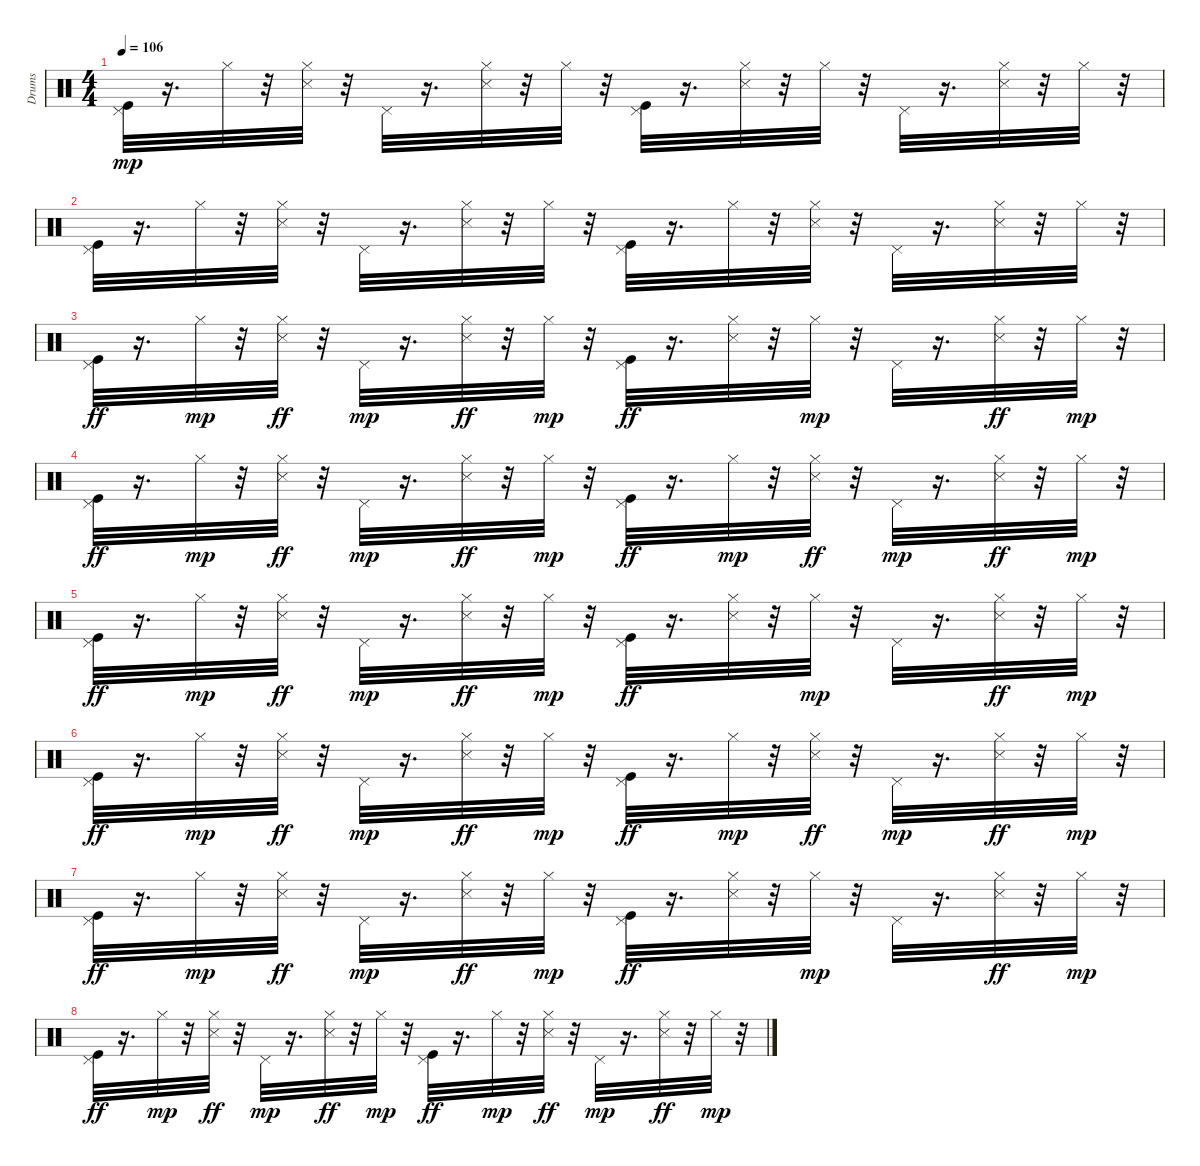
\track ("Drums" "Drums") {instrument percussion}
\staff {score}
\articulation defaults
\ts (4 4)
\tempo 106
\clef neutral
\ks c
("Kick (hit)" "Pedal Hi-Hat (hit)").32{dy mp} r.16{d} "Hi-Hat (closed)".32 r.32 ("Snare (side stick) 3" "Hi-Hat (closed)").32 r.32 "Pedal Hi-Hat (hit)".32 r.16{d} ("Snare (side stick) 3" "Hi-Hat (closed)").32 r.32 "Hi-Hat (closed)".32 r.32 ("Kick (hit)" "Pedal Hi-Hat (hit)").32 r.16{d} ("Snare (side stick) 3" "Hi-Hat (closed)").32 r.32 "Hi-Hat (closed)".32 r.32 "Pedal Hi-Hat (hit)".32 r.16{d} ("Snare (side stick) 3" "Hi-Hat (closed)").32 r.32 "Hi-Hat (closed)".32 r.32 |
("Kick (hit)" "Pedal Hi-Hat (hit)").32 r.16{d} "Hi-Hat (closed)".32 r.32 ("Snare (side stick) 3" "Hi-Hat (closed)").32 r.32 "Pedal Hi-Hat (hit)".32 r.16{d} ("Snare (side stick) 3" "Hi-Hat (closed)").32 r.32 "Hi-Hat (closed)".32 r.32 ("Kick (hit)" "Pedal Hi-Hat (hit)").32 r.16{d} "Hi-Hat (closed)".32 r.32 ("Snare (side stick) 3" "Hi-Hat (closed)").32 r.32 "Pedal Hi-Hat (hit)".32 r.16{d} ("Snare (side stick) 3" "Hi-Hat (closed)").32 r.32 "Hi-Hat (closed)".32 r.32 |
("Pedal Hi-Hat (hit)" "Kick (hit)").32{dy ff} r.16{d} "Hi-Hat (closed)".32{dy mp} r.32 ("Hi-Hat (closed)" "Snare (side stick) 3").32{dy ff} r.32 "Pedal Hi-Hat (hit)".32{dy mp} r.16{d} ("Hi-Hat (closed)" "Snare (side stick) 3").32{dy ff} r.32 "Hi-Hat (closed)".32{dy mp} r.32 ("Pedal Hi-Hat (hit)" "Kick (hit)").32{dy ff} r.16{d} ("Hi-Hat (closed)" "Snare (side stick) 3").32 r.32 "Hi-Hat (closed)".32{dy mp} r.32 "Pedal Hi-Hat (hit)".32 r.16{d} ("Hi-Hat (closed)" "Snare (side stick) 3").32{dy ff} r.32 "Hi-Hat (closed)".32{dy mp} r.32 |
("Pedal Hi-Hat (hit)" "Kick (hit)").32{dy ff} r.16{d} "Hi-Hat (closed)".32{dy mp} r.32 ("Hi-Hat (closed)" "Snare (side stick) 3").32{dy ff} r.32 "Pedal Hi-Hat (hit)".32{dy mp} r.16{d} ("Hi-Hat (closed)" "Snare (side stick) 3").32{dy ff} r.32 "Hi-Hat (closed)".32{dy mp} r.32 ("Pedal Hi-Hat (hit)" "Kick (hit)").32{dy ff} r.16{d} "Hi-Hat (closed)".32{dy mp} r.32 ("Hi-Hat (closed)" "Snare (side stick) 3").32{dy ff} r.32 "Pedal Hi-Hat (hit)".32{dy mp} r.16{d} ("Hi-Hat (closed)" "Snare (side stick) 3").32{dy ff} r.32 "Hi-Hat (closed)".32{dy mp} r.32 |
("Pedal Hi-Hat (hit)" "Kick (hit)").32{dy ff} r.16{d} "Hi-Hat (closed)".32{dy mp} r.32 ("Hi-Hat (closed)" "Snare (side stick) 3").32{dy ff} r.32 "Pedal Hi-Hat (hit)".32{dy mp} r.16{d} ("Hi-Hat (closed)" "Snare (side stick) 3").32{dy ff} r.32 "Hi-Hat (closed)".32{dy mp} r.32 ("Pedal Hi-Hat (hit)" "Kick (hit)").32{dy ff} r.16{d} ("Hi-Hat (closed)" "Snare (side stick) 3").32 r.32 "Hi-Hat (closed)".32{dy mp} r.32 "Pedal Hi-Hat (hit)".32 r.16{d} ("Hi-Hat (closed)" "Snare (side stick) 3").32{dy ff} r.32 "Hi-Hat (closed)".32{dy mp} r.32 |
("Pedal Hi-Hat (hit)" "Kick (hit)").32{dy ff} r.16{d} "Hi-Hat (closed)".32{dy mp} r.32 ("Hi-Hat (closed)" "Snare (side stick) 3").32{dy ff} r.32 "Pedal Hi-Hat (hit)".32{dy mp} r.16{d} ("Hi-Hat (closed)" "Snare (side stick) 3").32{dy ff} r.32 "Hi-Hat (closed)".32{dy mp} r.32 ("Pedal Hi-Hat (hit)" "Kick (hit)").32{dy ff} r.16{d} "Hi-Hat (closed)".32{dy mp} r.32 ("Hi-Hat (closed)" "Snare (side stick) 3").32{dy ff} r.32 "Pedal Hi-Hat (hit)".32{dy mp} r.16{d} ("Hi-Hat (closed)" "Snare (side stick) 3").32{dy ff} r.32 "Hi-Hat (closed)".32{dy mp} r.32 |
("Pedal Hi-Hat (hit)" "Kick (hit)").32{dy ff} r.16{d} "Hi-Hat (closed)".32{dy mp} r.32 ("Hi-Hat (closed)" "Snare (side stick) 3").32{dy ff} r.32 "Pedal Hi-Hat (hit)".32{dy mp} r.16{d} ("Hi-Hat (closed)" "Snare (side stick) 3").32{dy ff} r.32 "Hi-Hat (closed)".32{dy mp} r.32 ("Pedal Hi-Hat (hit)" "Kick (hit)").32{dy ff} r.16{d} ("Hi-Hat (closed)" "Snare (side stick) 3").32 r.32 "Hi-Hat (closed)".32{dy mp} r.32 "Pedal Hi-Hat (hit)".32 r.16{d} ("Hi-Hat (closed)" "Snare (side stick) 3").32{dy ff} r.32 "Hi-Hat (closed)".32{dy mp} r.32 |
("Pedal Hi-Hat (hit)" "Kick (hit)").32{dy ff} r.16{d} "Hi-Hat (closed)".32{dy mp} r.32 ("Hi-Hat (closed)" "Snare (side stick) 3").32{dy ff} r.32 "Pedal Hi-Hat (hit)".32{dy mp} r.16{d} ("Hi-Hat (closed)" "Snare (side stick) 3").32{dy ff} r.32 "Hi-Hat (closed)".32{dy mp} r.32 ("Pedal Hi-Hat (hit)" "Kick (hit)").32{dy ff} r.16{d} "Hi-Hat (closed)".32{dy mp} r.32 ("Hi-Hat (closed)" "Snare (side stick) 3").32{dy ff} r.32 "Pedal Hi-Hat (hit)".32{dy mp} r.16{d} ("Hi-Hat (closed)" "Snare (side stick) 3").32{dy ff} r.32 "Hi-Hat (closed)".32{dy mp} r.32
